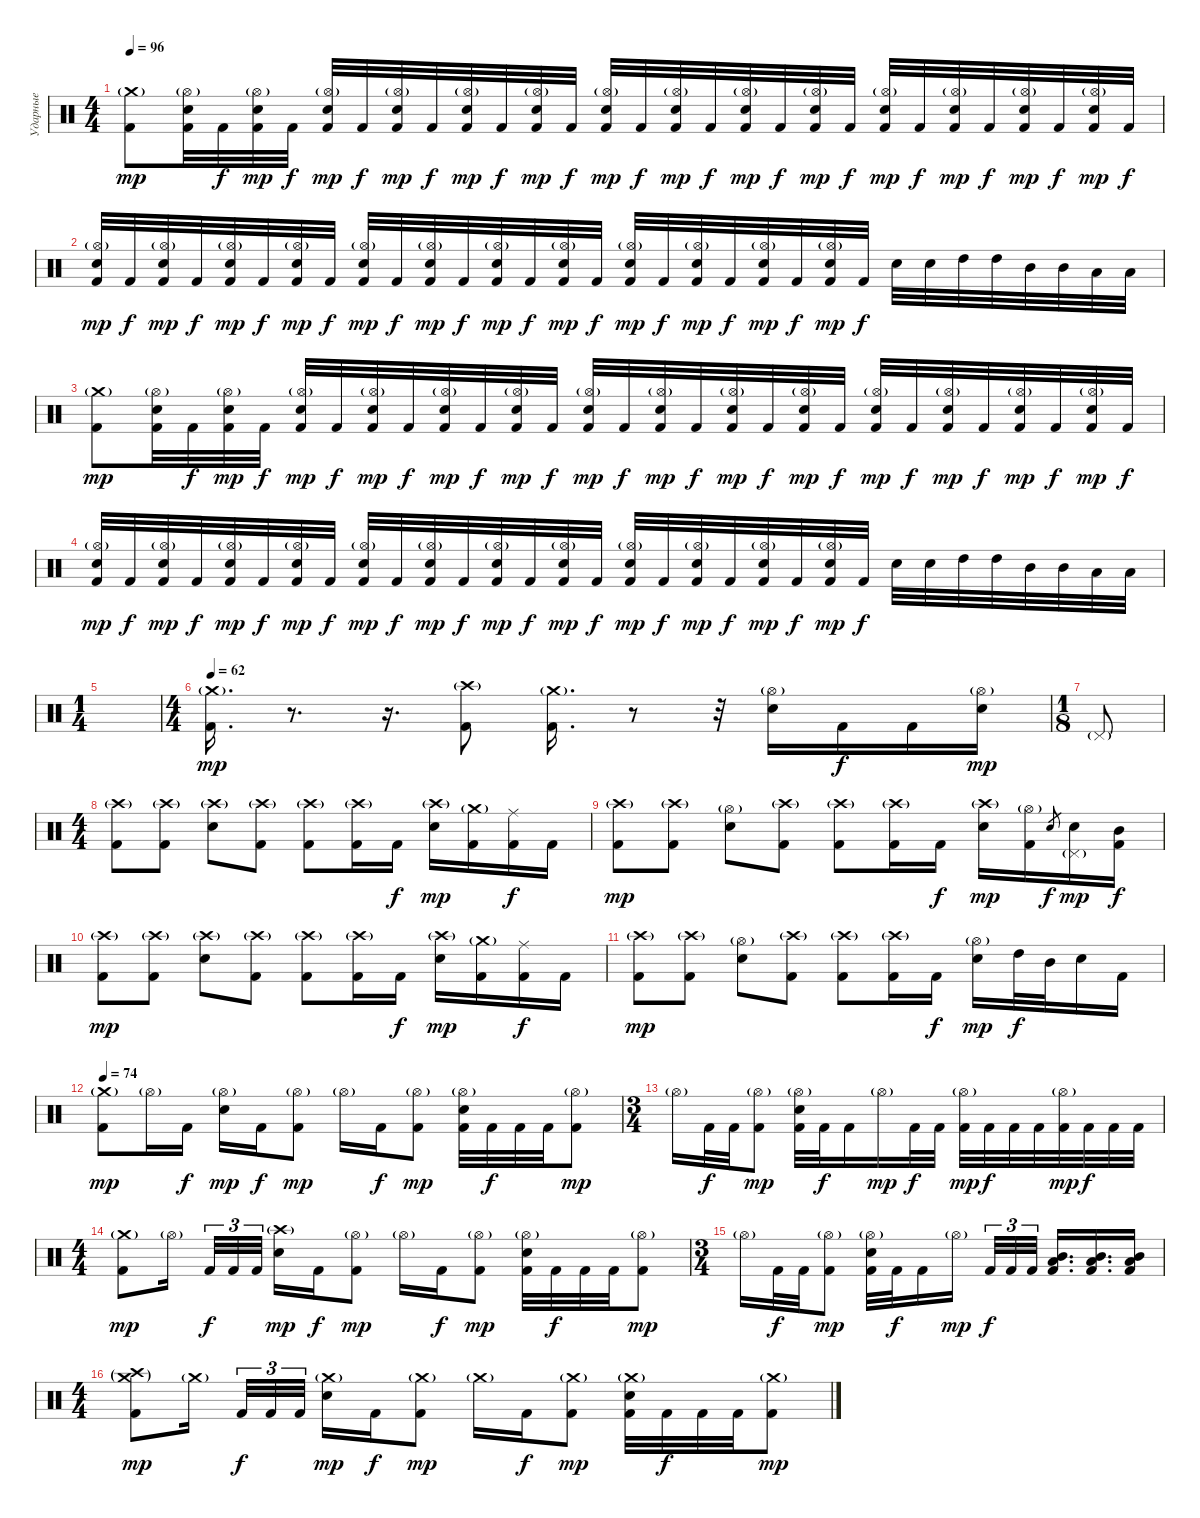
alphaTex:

\track ("Ударные" "Ударные") {instrument percussion}
\staff {score}
\articulation defaults
\ts (4 4)
\tempo 96
\clef neutral
\ks c
("Crash medium (hit)"{g} "Kick (hit) 2").8{dy mp} ("Hi-Hat (open)"{g} "Electric Snare (hit)" "Kick (hit) 2").32 "Kick (hit) 2".32{dy f} ("Hi-Hat (open)"{g} "Electric Snare (hit)" "Kick (hit) 2").32{dy mp} "Kick (hit) 2".32{dy f} ("Hi-Hat (open)"{g} "Electric Snare (hit)" "Kick (hit) 2").32{dy mp} "Kick (hit) 2".32{dy f} ("Hi-Hat (open)"{g} "Electric Snare (hit)" "Kick (hit) 2").32{dy mp} "Kick (hit) 2".32{dy f} ("Hi-Hat (open)"{g} "Electric Snare (hit)" "Kick (hit) 2").32{dy mp} "Kick (hit) 2".32{dy f} ("Hi-Hat (open)"{g} "Electric Snare (hit)" "Kick (hit) 2").32{dy mp} "Kick (hit) 2".32{dy f} ("Hi-Hat (open)"{g} "Electric Snare (hit)" "Kick (hit) 2").32{dy mp} "Kick (hit) 2".32{dy f} ("Hi-Hat (open)"{g} "Electric Snare (hit)" "Kick (hit) 2").32{dy mp} "Kick (hit) 2".32{dy f} ("Hi-Hat (open)"{g} "Electric Snare (hit)" "Kick (hit) 2").32{dy mp} "Kick (hit) 2".32{dy f} ("Hi-Hat (open)"{g} "Electric Snare (hit)" "Kick (hit) 2").32{dy mp} "Kick (hit) 2".32{dy f} ("Hi-Hat (open)"{g} "Electric Snare (hit)" "Kick (hit) 2").32{dy mp} "Kick (hit) 2".32{dy f} ("Hi-Hat (open)"{g} "Electric Snare (hit)" "Kick (hit) 2").32{dy mp} "Kick (hit) 2".32{dy f} ("Hi-Hat (open)"{g} "Electric Snare (hit)" "Kick (hit) 2").32{dy mp} "Kick (hit) 2".32{dy f} ("Hi-Hat (open)"{g} "Electric Snare (hit)" "Kick (hit) 2").32{dy mp} "Kick (hit) 2".32{dy f} |
("Hi-Hat (open)"{g} "Electric Snare (hit)" "Kick (hit) 2").32{dy mp} "Kick (hit) 2".32{dy f} ("Hi-Hat (open)"{g} "Electric Snare (hit)" "Kick (hit) 2").32{dy mp} "Kick (hit) 2".32{dy f} ("Hi-Hat (open)"{g} "Electric Snare (hit)" "Kick (hit) 2").32{dy mp} "Kick (hit) 2".32{dy f} ("Hi-Hat (open)"{g} "Electric Snare (hit)" "Kick (hit) 2").32{dy mp} "Kick (hit) 2".32{dy f} ("Hi-Hat (open)"{g} "Electric Snare (hit)" "Kick (hit) 2").32{dy mp} "Kick (hit) 2".32{dy f} ("Hi-Hat (open)"{g} "Electric Snare (hit)" "Kick (hit) 2").32{dy mp} "Kick (hit) 2".32{dy f} ("Hi-Hat (open)"{g} "Electric Snare (hit)" "Kick (hit) 2").32{dy mp} "Kick (hit) 2".32{dy f} ("Hi-Hat (open)"{g} "Electric Snare (hit)" "Kick (hit) 2").32{dy mp} "Kick (hit) 2".32{dy f} ("Hi-Hat (open)"{g} "Electric Snare (hit)" "Kick (hit) 2").32{dy mp} "Kick (hit) 2".32{dy f} ("Hi-Hat (open)"{g} "Electric Snare (hit)" "Kick (hit) 2").32{dy mp} "Kick (hit) 2".32{dy f} ("Hi-Hat (open)"{g} "Electric Snare (hit)" "Kick (hit) 2").32{dy mp} "Kick (hit) 2".32{dy f} ("Hi-Hat (open)"{g} "Electric Snare (hit)" "Kick (hit) 2").32{dy mp} "Kick (hit) 2".32{dy f} "Electric Snare (hit)".32 "Electric Snare (hit)".32 "High Tom (hit)".32 "High Tom (hit)".32 "Mid Tom (hit)".32 "Mid Tom (hit)".32 "Low Tom (hit)".32 "Low Tom (hit)".32 |
("Crash medium (hit)"{g} "Kick (hit) 2").8{dy mp} ("Hi-Hat (open)"{g} "Electric Snare (hit)" "Kick (hit) 2").32 "Kick (hit) 2".32{dy f} ("Hi-Hat (open)"{g} "Electric Snare (hit)" "Kick (hit) 2").32{dy mp} "Kick (hit) 2".32{dy f} ("Hi-Hat (open)"{g} "Electric Snare (hit)" "Kick (hit) 2").32{dy mp} "Kick (hit) 2".32{dy f} ("Hi-Hat (open)"{g} "Electric Snare (hit)" "Kick (hit) 2").32{dy mp} "Kick (hit) 2".32{dy f} ("Hi-Hat (open)"{g} "Electric Snare (hit)" "Kick (hit) 2").32{dy mp} "Kick (hit) 2".32{dy f} ("Hi-Hat (open)"{g} "Electric Snare (hit)" "Kick (hit) 2").32{dy mp} "Kick (hit) 2".32{dy f} ("Hi-Hat (open)"{g} "Electric Snare (hit)" "Kick (hit) 2").32{dy mp} "Kick (hit) 2".32{dy f} ("Hi-Hat (open)"{g} "Electric Snare (hit)" "Kick (hit) 2").32{dy mp} "Kick (hit) 2".32{dy f} ("Hi-Hat (open)"{g} "Electric Snare (hit)" "Kick (hit) 2").32{dy mp} "Kick (hit) 2".32{dy f} ("Hi-Hat (open)"{g} "Electric Snare (hit)" "Kick (hit) 2").32{dy mp} "Kick (hit) 2".32{dy f} ("Hi-Hat (open)"{g} "Electric Snare (hit)" "Kick (hit) 2").32{dy mp} "Kick (hit) 2".32{dy f} ("Hi-Hat (open)"{g} "Electric Snare (hit)" "Kick (hit) 2").32{dy mp} "Kick (hit) 2".32{dy f} ("Hi-Hat (open)"{g} "Electric Snare (hit)" "Kick (hit) 2").32{dy mp} "Kick (hit) 2".32{dy f} ("Hi-Hat (open)"{g} "Electric Snare (hit)" "Kick (hit) 2").32{dy mp} "Kick (hit) 2".32{dy f} |
("Hi-Hat (open)"{g} "Electric Snare (hit)" "Kick (hit) 2").32{dy mp} "Kick (hit) 2".32{dy f} ("Hi-Hat (open)"{g} "Electric Snare (hit)" "Kick (hit) 2").32{dy mp} "Kick (hit) 2".32{dy f} ("Hi-Hat (open)"{g} "Electric Snare (hit)" "Kick (hit) 2").32{dy mp} "Kick (hit) 2".32{dy f} ("Hi-Hat (open)"{g} "Electric Snare (hit)" "Kick (hit) 2").32{dy mp} "Kick (hit) 2".32{dy f} ("Hi-Hat (open)"{g} "Electric Snare (hit)" "Kick (hit) 2").32{dy mp} "Kick (hit) 2".32{dy f} ("Hi-Hat (open)"{g} "Electric Snare (hit)" "Kick (hit) 2").32{dy mp} "Kick (hit) 2".32{dy f} ("Hi-Hat (open)"{g} "Electric Snare (hit)" "Kick (hit) 2").32{dy mp} "Kick (hit) 2".32{dy f} ("Hi-Hat (open)"{g} "Electric Snare (hit)" "Kick (hit) 2").32{dy mp} "Kick (hit) 2".32{dy f} ("Hi-Hat (open)"{g} "Electric Snare (hit)" "Kick (hit) 2").32{dy mp} "Kick (hit) 2".32{dy f} ("Hi-Hat (open)"{g} "Electric Snare (hit)" "Kick (hit) 2").32{dy mp} "Kick (hit) 2".32{dy f} ("Hi-Hat (open)"{g} "Electric Snare (hit)" "Kick (hit) 2").32{dy mp} "Kick (hit) 2".32{dy f} ("Hi-Hat (open)"{g} "Electric Snare (hit)" "Kick (hit) 2").32{dy mp} "Kick (hit) 2".32{dy f} "Electric Snare (hit)".32 "Electric Snare (hit)".32 "High Tom (hit)".32 "High Tom (hit)".32 "Mid Tom (hit)".32 "Mid Tom (hit)".32 "Low Tom (hit)".32 "Low Tom (hit)".32 |
\ts (1 4)
|
\ts (4 4)
\tempo 62
("Crash medium (hit)"{g} "Kick (hit) 2").16{d dy mp} r.8{d volume 0} r.16{d} ("Crash high (hit)"{g} "Kick (hit) 2").8{volume 16} ("Crash medium (hit)"{g} "Kick (hit) 2").16{d} r.8{volume 0} r.32{volume 16} ("Hi-Hat (open)"{g} "Electric Snare (hit)").16 "Kick (hit) 2".16{dy f} "Kick (hit) 2".16 ("Hi-Hat (open)"{g} "Electric Snare (hit)").16{dy mp} |
\ts (1 8)
"Pedal Hi-Hat (hit)"{g}.8{volume 7} |
\ts (4 4)
("Crash high (hit)"{g} "Kick (hit) 2").8{volume 16} ("Crash high (hit)"{g} "Kick (hit) 2").8 ("Crash high (hit)"{g} "Electric Snare (hit)").8 ("Crash high (hit)"{g} "Kick (hit) 2").8 ("Crash high (hit)"{g} "Kick (hit) 2").8 ("Crash high (hit)"{g} "Kick (hit) 2").16 "Kick (hit) 2".16{dy f} ("Crash high (hit)"{g} "Electric Snare (hit)").16{dy mp} ("Crash medium (hit)"{g} "Kick (hit) 2").16 ("Ride (middle)" "Kick (hit) 2").16{dy f} "Kick (hit) 2".16 |
("Crash high (hit)"{g} "Kick (hit) 2").8{dy mp} ("Crash high (hit)"{g} "Kick (hit) 2").8 ("Hi-Hat (open)"{g} "Electric Snare (hit)").8 ("Crash high (hit)"{g} "Kick (hit) 2").8 ("Crash high (hit)"{g} "Kick (hit) 2").8 ("Crash high (hit)"{g} "Kick (hit) 2").16 "Kick (hit) 2".16{dy f} ("Crash high (hit)"{g} "Electric Snare (hit)").16{dy mp} ("Hi-Hat (open)"{g} "Kick (hit) 2").16 "Electric Snare (hit)".8{gr dy f} ("Pedal Hi-Hat (hit)"{g} "Electric Snare (hit)").16{dy mp} ("Mid Tom (hit)" "Kick (hit) 2").16{dy f} |
("Crash high (hit)"{g} "Kick (hit) 2").8{dy mp} ("Crash high (hit)"{g} "Kick (hit) 2").8 ("Crash high (hit)"{g} "Electric Snare (hit)").8 ("Crash high (hit)"{g} "Kick (hit) 2").8 ("Crash high (hit)"{g} "Kick (hit) 2").8 ("Crash high (hit)"{g} "Kick (hit) 2").16 "Kick (hit) 2".16{dy f} ("Crash high (hit)"{g} "Electric Snare (hit)").16{dy mp} ("Crash medium (hit)"{g} "Kick (hit) 2").16 ("Ride (middle)" "Kick (hit) 2").16{dy f} "Kick (hit) 2".16 |
("Crash high (hit)"{g} "Kick (hit) 2").8{dy mp} ("Crash high (hit)"{g} "Kick (hit) 2").8 ("Hi-Hat (open)"{g} "Electric Snare (hit)").8 ("Crash high (hit)"{g} "Kick (hit) 2").8 ("Crash high (hit)"{g} "Kick (hit) 2").8 ("Crash high (hit)"{g} "Kick (hit) 2").16 "Kick (hit) 2".16{dy f} ("Hi-Hat (open)"{g} "Electric Snare (hit)").16{dy mp} "High Tom (hit)".32{dy f} "Mid Tom (hit)".32 "Electric Snare (hit)".16 "Kick (hit) 2".16 |
\tempo 74
("Crash medium (hit)"{g} "Kick (hit) 2").8{dy mp} "Hi-Hat (open)"{g}.16 "Kick (hit) 2".16{dy f} ("Hi-Hat (open)"{g} "Electric Snare (hit)").16{dy mp} "Kick (hit) 2".16{dy f} ("Hi-Hat (open)"{g} "Kick (hit) 2").8{dy mp} "Hi-Hat (open)"{g}.16 "Kick (hit) 2".16{dy f} ("Hi-Hat (open)"{g} "Kick (hit) 2").8{dy mp} ("Hi-Hat (open)"{g} "Electric Snare (hit)" "Kick (hit) 2").32 "Kick (hit) 2".32{dy f} "Kick (hit) 2".32 "Kick (hit) 2".32 ("Hi-Hat (open)"{g} "Kick (hit) 2").8{dy mp} |
\ts (3 4)
"Hi-Hat (open)"{g}.16 "Kick (hit) 2".32{dy f} "Kick (hit) 2".32 ("Hi-Hat (open)"{g} "Kick (hit) 2").8{dy mp} ("Hi-Hat (open)"{g} "Electric Snare (hit)" "Kick (hit) 2").32 "Kick (hit) 2".32{dy f} "Kick (hit) 2".16 "Hi-Hat (open)"{g}.16{dy mp} "Kick (hit) 2".32{dy f} "Kick (hit) 2".32 ("Hi-Hat (open)"{g} "Kick (hit) 2").32{dy mp} "Kick (hit) 2".32{dy f} "Kick (hit) 2".32 "Kick (hit) 2".32 ("Hi-Hat (open)"{g} "Kick (hit) 2").32{dy mp} "Kick (hit) 2".32{dy f} "Kick (hit) 2".32 "Kick (hit) 2".32 |
\ts (4 4)
("Crash medium (hit)"{g} "Kick (hit) 2").8{dy mp} "Hi-Hat (open)"{g}.16 "Kick (hit) 2".32{tu (3 2) dy f} "Kick (hit) 2".32{tu (3 2)} "Kick (hit) 2".32{tu (3 2)} ("Crash high (hit)"{g} "Electric Snare (hit)").16{dy mp} "Kick (hit) 2".16{dy f} ("Hi-Hat (open)"{g} "Kick (hit) 2").8{dy mp} "Hi-Hat (open)"{g}.16 "Kick (hit) 2".16{dy f} ("Hi-Hat (open)"{g} "Kick (hit) 2").8{dy mp} ("Hi-Hat (open)"{g} "Electric Snare (hit)" "Kick (hit) 2").32 "Kick (hit) 2".32{dy f} "Kick (hit) 2".32 "Kick (hit) 2".32 ("Hi-Hat (open)"{g} "Kick (hit) 2").8{dy mp} |
\ts (3 4)
"Hi-Hat (open)"{g}.16 "Kick (hit) 2".32{dy f} "Kick (hit) 2".32 ("Hi-Hat (open)"{g} "Kick (hit) 2").8{dy mp} ("Hi-Hat (open)"{g} "Electric Snare (hit)" "Kick (hit) 2").32 "Kick (hit) 2".32{dy f} "Kick (hit) 2".16 "Hi-Hat (open)"{g}.16{dy mp} "Kick (hit) 2".32{tu (3 2) dy f} "Kick (hit) 2".32{tu (3 2)} "Kick (hit) 2".32{tu (3 2)} ("Mid Tom (hit)" "Low Tom (hit)" "Kick (hit) 2").16{d} ("Mid Tom (hit)" "Low Tom (hit)" "Kick (hit) 2").16{d} ("Mid Tom (hit)" "Low Tom (hit)" "Kick (hit) 2").16 |
\ts (4 4)
("Crash high (hit)"{g} "Crash medium (hit)"{g} "Kick (hit) 2").8{dy mp} "Crash medium (hit)"{g}.16 "Kick (hit) 2".32{tu (3 2) dy f} "Kick (hit) 2".32{tu (3 2)} "Kick (hit) 2".32{tu (3 2)} ("Crash medium (hit)"{g} "Electric Snare (hit)").16{dy mp} "Kick (hit) 2".16{dy f} ("Crash medium (hit)"{g} "Kick (hit) 2").8{dy mp} "Crash medium (hit)"{g}.16 "Kick (hit) 2".16{dy f} ("Crash medium (hit)"{g} "Kick (hit) 2").8{dy mp} ("Crash medium (hit)"{g} "Electric Snare (hit)" "Kick (hit) 2").32 "Kick (hit) 2".32{dy f} "Kick (hit) 2".32 "Kick (hit) 2".32 ("Crash medium (hit)"{g} "Kick (hit) 2").8{dy mp}
